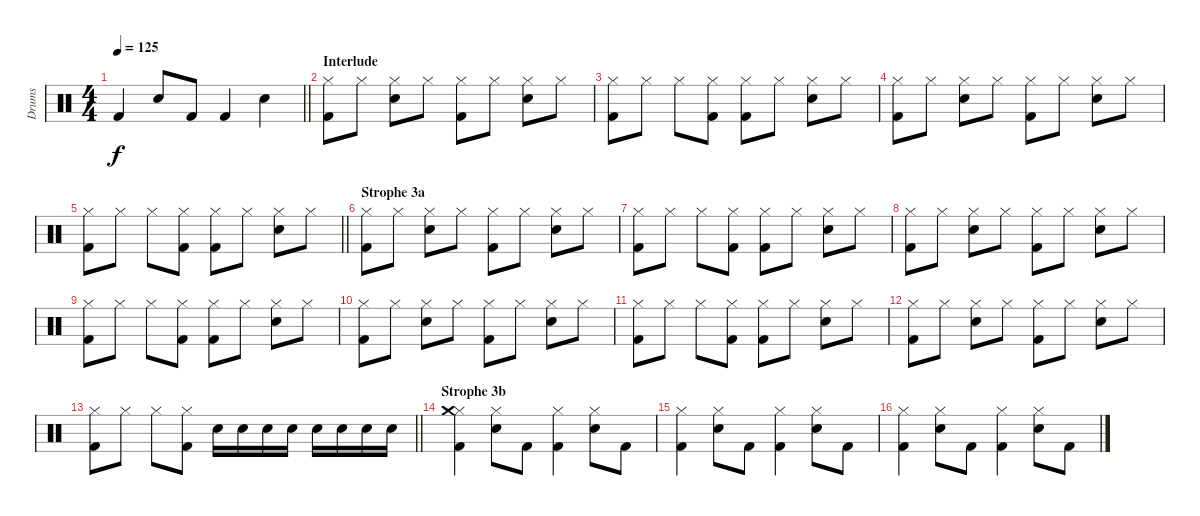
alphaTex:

\track ("Drums" "Drums") {instrument percussion}
\staff {score}
\articulation defaults
\ts (4 4)
\tempo 125
\clef neutral
\barLineRight lightlight
\ks c "Kick (hit) 2".4{dy f} "Snare (hit) 2".8 "Kick (hit) 2".8 "Kick (hit) 2".4 "Snare (hit) 2".4
|
\section ("" "Interlude")
("Hi-Hat (closed)" "Kick (hit) 2").8 "Hi-Hat (closed)".8 ("Hi-Hat (closed)" "Snare (hit) 2").8 "Hi-Hat (closed)".8 ("Hi-Hat (closed)" "Kick (hit) 2").8 "Hi-Hat (closed)".8 ("Hi-Hat (closed)" "Snare (hit) 2").8 "Hi-Hat (closed)".8 |
("Hi-Hat (closed)" "Kick (hit) 2").8 "Hi-Hat (closed)".8 "Hi-Hat (closed)".8 ("Hi-Hat (closed)" "Kick (hit) 2").8 ("Hi-Hat (closed)" "Kick (hit) 2").8 "Hi-Hat (closed)".8 ("Hi-Hat (closed)" "Snare (hit) 2").8 "Hi-Hat (closed)".8 |
("Hi-Hat (closed)" "Kick (hit) 2").8 "Hi-Hat (closed)".8 ("Hi-Hat (closed)" "Snare (hit) 2").8 "Hi-Hat (closed)".8 ("Hi-Hat (closed)" "Kick (hit) 2").8 "Hi-Hat (closed)".8 ("Hi-Hat (closed)" "Snare (hit) 2").8 "Hi-Hat (closed)".8 |
\barLineRight lightlight
("Hi-Hat (closed)" "Kick (hit) 2").8 "Hi-Hat (closed)".8 "Hi-Hat (closed)".8 ("Hi-Hat (closed)" "Kick (hit) 2").8 ("Hi-Hat (closed)" "Kick (hit) 2").8 "Hi-Hat (closed)".8 ("Hi-Hat (closed)" "Snare (hit) 2").8 "Hi-Hat (closed)".8 |
\section ("" "Strophe 3a")
("Hi-Hat (closed)" "Kick (hit) 2").8 "Hi-Hat (closed)".8 ("Hi-Hat (closed)" "Snare (hit) 2").8 "Hi-Hat (closed)".8 ("Hi-Hat (closed)" "Kick (hit) 2").8 "Hi-Hat (closed)".8 ("Hi-Hat (closed)" "Snare (hit) 2").8 "Hi-Hat (closed)".8 |
("Hi-Hat (closed)" "Kick (hit) 2").8 "Hi-Hat (closed)".8 "Hi-Hat (closed)".8 ("Hi-Hat (closed)" "Kick (hit) 2").8 ("Hi-Hat (closed)" "Kick (hit) 2").8 "Hi-Hat (closed)".8 ("Hi-Hat (closed)" "Snare (hit) 2").8 "Hi-Hat (closed)".8 |
("Hi-Hat (closed)" "Kick (hit) 2").8 "Hi-Hat (closed)".8 ("Hi-Hat (closed)" "Snare (hit) 2").8 "Hi-Hat (closed)".8 ("Hi-Hat (closed)" "Kick (hit) 2").8 "Hi-Hat (closed)".8 ("Hi-Hat (closed)" "Snare (hit) 2").8 "Hi-Hat (closed)".8 |
("Hi-Hat (closed)" "Kick (hit) 2").8 "Hi-Hat (closed)".8 "Hi-Hat (closed)".8 ("Hi-Hat (closed)" "Kick (hit) 2").8 ("Hi-Hat (closed)" "Kick (hit) 2").8 "Hi-Hat (closed)".8 ("Hi-Hat (closed)" "Snare (hit) 2").8 "Hi-Hat (closed)".8 |
("Hi-Hat (closed)" "Kick (hit) 2").8 "Hi-Hat (closed)".8 ("Hi-Hat (closed)" "Snare (hit) 2").8 "Hi-Hat (closed)".8 ("Hi-Hat (closed)" "Kick (hit) 2").8 "Hi-Hat (closed)".8 ("Hi-Hat (closed)" "Snare (hit) 2").8 "Hi-Hat (closed)".8 |
("Hi-Hat (closed)" "Kick (hit) 2").8 "Hi-Hat (closed)".8 "Hi-Hat (closed)".8 ("Hi-Hat (closed)" "Kick (hit) 2").8 ("Hi-Hat (closed)" "Kick (hit) 2").8 "Hi-Hat (closed)".8 ("Hi-Hat (closed)" "Snare (hit) 2").8 "Hi-Hat (closed)".8 |
("Hi-Hat (closed)" "Kick (hit) 2").8 "Hi-Hat (closed)".8 ("Hi-Hat (closed)" "Snare (hit) 2").8 "Hi-Hat (closed)".8 ("Hi-Hat (closed)" "Kick (hit) 2").8 "Hi-Hat (closed)".8 ("Hi-Hat (closed)" "Snare (hit) 2").8 "Hi-Hat (closed)".8 |
\barLineRight lightlight
("Hi-Hat (closed)" "Kick (hit) 2").8 "Hi-Hat (closed)".8 "Hi-Hat (closed)".8 ("Hi-Hat (closed)" "Kick (hit) 2").8 "Snare (hit) 2".16 "Snare (hit) 2".16 "Snare (hit) 2".16 "Snare (hit) 2".16 "Snare (hit) 2".16 "Snare (hit) 2".16 "Snare (hit) 2".16 "Snare (hit) 2".16 |
\section ("" "Strophe 3b")
("Hi-Hat (closed)" "Crash medium (hit)" "Kick (hit) 2").4 ("Hi-Hat (closed)" "Snare (hit) 2").8 "Kick (hit) 2".8 ("Hi-Hat (closed)" "Kick (hit) 2").4 ("Hi-Hat (closed)" "Snare (hit) 2").8 "Kick (hit) 2".8 |
("Hi-Hat (closed)" "Kick (hit) 2").4 ("Hi-Hat (closed)" "Snare (hit) 2").8 "Kick (hit) 2".8 ("Hi-Hat (closed)" "Kick (hit) 2").4 ("Hi-Hat (closed)" "Snare (hit) 2").8 "Kick (hit) 2".8 |
("Hi-Hat (closed)" "Kick (hit) 2").4 ("Hi-Hat (closed)" "Snare (hit) 2").8 "Kick (hit) 2".8 ("Hi-Hat (closed)" "Kick (hit) 2").4 ("Hi-Hat (closed)" "Snare (hit) 2").8 "Kick (hit) 2".8
